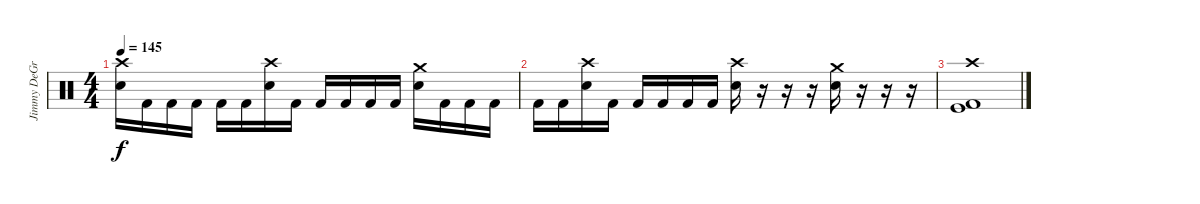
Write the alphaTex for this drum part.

\track ("Jimmy DeGrasso" "Jimmy DeGr") {instrument percussion}
\staff {score}
\articulation defaults
\ts (4 4)
\tempo 145
\clef neutral
\ks c
("Crash high (hit)" "Electric Snare (hit)").16{dy f} "Kick (hit) 2".16 "Kick (hit) 2".16 "Kick (hit) 2".16 "Kick (hit) 2".16 "Kick (hit) 2".16 ("Crash high (hit)" "Electric Snare (hit)").16 "Kick (hit) 2".16 "Kick (hit) 2".16 "Kick (hit) 2".16 "Kick (hit) 2".16 "Kick (hit) 2".16 ("Crash medium (hit)" "Electric Snare (hit)").16 "Kick (hit) 2".16 "Kick (hit) 2".16 "Kick (hit) 2".16 |
"Kick (hit) 2".16 "Kick (hit) 2".16 ("Crash high (hit)" "Electric Snare (hit)").16 "Kick (hit) 2".16 "Kick (hit) 2".16 "Kick (hit) 2".16 "Kick (hit) 2".16 "Kick (hit) 2".16 ("Crash high (hit)" "Electric Snare (hit)").16 r.16 r.16 r.16 ("Crash medium (hit)" "Electric Snare (hit)").16 r.16 r.16 r.16 |
("Crash high (hit)" "Kick (hit)" "Kick (hit) 2").1
